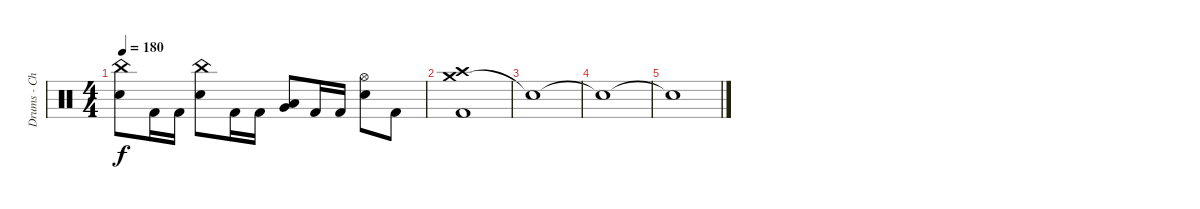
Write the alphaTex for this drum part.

\track ("Drums - Christopher Hornbrook" "Drums - Ch") {instrument percussion}
\staff {score}
\articulation defaults
\ts (4 4)
\tempo 180
\clef neutral
\ks c
("China (hit)" "Electric Snare (hit)").8{dy f} "Kick (hit) 2".16 "Kick (hit) 2".16 ("China (hit)" "Electric Snare (hit)").8 "Kick (hit) 2".16 "Kick (hit) 2".16 ("Low Tom (hit)" "Very Low Tom (hit)").8{bu 120} "Kick (hit) 2".16 "Kick (hit) 2".16 ("Hi-Hat (open)" "Electric Snare (hit)").8 "Kick (hit) 2".8 |
("Crash medium (hit)" "Crash high (hit)" "Kick (hit) 2").1{volume 0} |
"Snare (hit)"{t}.1 |
"Snare (hit)"{t}.1 |
"Snare (hit)"{t}.1
